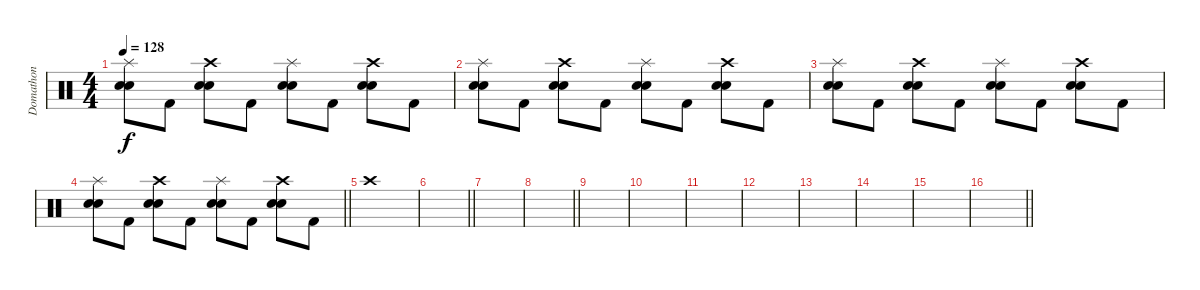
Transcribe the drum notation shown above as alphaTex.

\track ("Domathon" "Domathon") {instrument percussion}
\staff {score}
\articulation defaults
\ts (4 4)
\tempo 128
\clef neutral
\ks c
("Splash (hit)" "Snare (hit) 2" "Electric Snare (hit)").8{dy f} "Kick (hit) 2".8 ("Crash high (hit)" "Snare (hit) 2" "Electric Snare (hit)").8 "Kick (hit) 2".8 ("Splash (hit)" "Snare (hit) 2" "Electric Snare (hit)").8 "Kick (hit) 2".8 ("Crash high (hit)" "Snare (hit) 2" "Electric Snare (hit)").8 "Kick (hit) 2".8 |
("Splash (hit)" "Snare (hit) 2" "Electric Snare (hit)").8 "Kick (hit) 2".8 ("Crash high (hit)" "Snare (hit) 2" "Electric Snare (hit)").8 "Kick (hit) 2".8 ("Splash (hit)" "Snare (hit) 2" "Electric Snare (hit)").8 "Kick (hit) 2".8 ("Crash high (hit)" "Snare (hit) 2" "Electric Snare (hit)").8 "Kick (hit) 2".8 |
("Splash (hit)" "Snare (hit) 2" "Electric Snare (hit)").8 "Kick (hit) 2".8 ("Crash high (hit)" "Snare (hit) 2" "Electric Snare (hit)").8 "Kick (hit) 2".8 ("Splash (hit)" "Snare (hit) 2" "Electric Snare (hit)").8 "Kick (hit) 2".8 ("Crash high (hit)" "Snare (hit) 2" "Electric Snare (hit)").8 "Kick (hit) 2".8 |
\barLineRight lightlight
("Splash (hit)" "Snare (hit) 2" "Electric Snare (hit)").8 "Kick (hit) 2".8 ("Crash high (hit)" "Snare (hit) 2" "Electric Snare (hit)").8 "Kick (hit) 2".8 ("Splash (hit)" "Snare (hit) 2" "Electric Snare (hit)").8 "Kick (hit) 2".8 ("Crash high (hit)" "Snare (hit) 2" "Electric Snare (hit)").8 "Kick (hit) 2".8 |
"Crash high (hit)".1 |
\barLineRight lightlight
|
|
\barLineRight lightlight
|
|
|
|
|
|
|
|
\barLineRight lightlight
